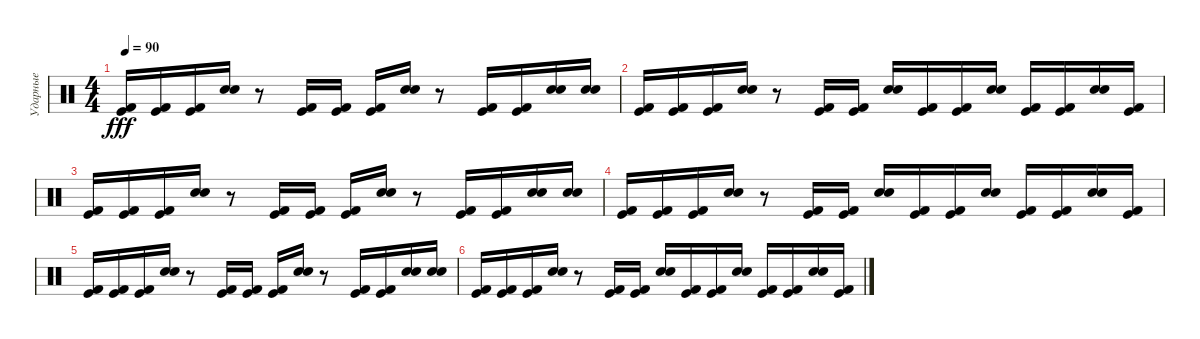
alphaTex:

\track ("Ударные" "Ударные") {instrument percussion}
\staff {score}
\articulation defaults
\ts (4 4)
\tempo 90
\clef neutral
\ks c
("Kick (hit) 2" "Kick (hit)").16{dy fff} ("Kick (hit) 2" "Kick (hit)").16 ("Kick (hit) 2" "Kick (hit)").16 ("Electric Snare (hit)" "Snare (hit) 2").16 r.8 ("Kick (hit) 2" "Kick (hit)").16 ("Kick (hit) 2" "Kick (hit)").16 ("Kick (hit) 2" "Kick (hit)").16 ("Electric Snare (hit)" "Snare (hit) 2").16 r.8 ("Kick (hit) 2" "Kick (hit)").16 ("Kick (hit) 2" "Kick (hit)").16 ("Electric Snare (hit)" "Snare (hit) 2").16 ("Electric Snare (hit)" "Snare (hit) 2").16 |
("Kick (hit) 2" "Kick (hit)").16 ("Kick (hit) 2" "Kick (hit)").16 ("Kick (hit) 2" "Kick (hit)").16 ("Electric Snare (hit)" "Snare (hit) 2").16 r.8 ("Kick (hit) 2" "Kick (hit)").16 ("Kick (hit) 2" "Kick (hit)").16 ("Electric Snare (hit)" "Snare (hit) 2").16 ("Kick (hit) 2" "Kick (hit)").16 ("Kick (hit) 2" "Kick (hit)").16 ("Electric Snare (hit)" "Snare (hit) 2").16 ("Kick (hit) 2" "Kick (hit)").16 ("Kick (hit) 2" "Kick (hit)").16 ("Electric Snare (hit)" "Snare (hit) 2").16 ("Kick (hit) 2" "Kick (hit)").16 |
("Kick (hit) 2" "Kick (hit)").16 ("Kick (hit) 2" "Kick (hit)").16 ("Kick (hit) 2" "Kick (hit)").16 ("Electric Snare (hit)" "Snare (hit) 2").16 r.8 ("Kick (hit) 2" "Kick (hit)").16 ("Kick (hit) 2" "Kick (hit)").16 ("Kick (hit) 2" "Kick (hit)").16 ("Electric Snare (hit)" "Snare (hit) 2").16 r.8 ("Kick (hit) 2" "Kick (hit)").16 ("Kick (hit) 2" "Kick (hit)").16 ("Electric Snare (hit)" "Snare (hit) 2").16 ("Electric Snare (hit)" "Snare (hit) 2").16 |
("Kick (hit) 2" "Kick (hit)").16 ("Kick (hit) 2" "Kick (hit)").16 ("Kick (hit) 2" "Kick (hit)").16 ("Electric Snare (hit)" "Snare (hit) 2").16 r.8 ("Kick (hit) 2" "Kick (hit)").16 ("Kick (hit) 2" "Kick (hit)").16 ("Electric Snare (hit)" "Snare (hit) 2").16 ("Kick (hit) 2" "Kick (hit)").16 ("Kick (hit) 2" "Kick (hit)").16 ("Electric Snare (hit)" "Snare (hit) 2").16 ("Kick (hit) 2" "Kick (hit)").16 ("Kick (hit) 2" "Kick (hit)").16 ("Electric Snare (hit)" "Snare (hit) 2").16 ("Kick (hit) 2" "Kick (hit)").16 |
("Kick (hit) 2" "Kick (hit)").16 ("Kick (hit) 2" "Kick (hit)").16 ("Kick (hit) 2" "Kick (hit)").16 ("Electric Snare (hit)" "Snare (hit) 2").16 r.8 ("Kick (hit) 2" "Kick (hit)").16 ("Kick (hit) 2" "Kick (hit)").16 ("Kick (hit) 2" "Kick (hit)").16 ("Electric Snare (hit)" "Snare (hit) 2").16 r.8 ("Kick (hit) 2" "Kick (hit)").16 ("Kick (hit) 2" "Kick (hit)").16 ("Electric Snare (hit)" "Snare (hit) 2").16 ("Electric Snare (hit)" "Snare (hit) 2").16 |
("Kick (hit) 2" "Kick (hit)").16 ("Kick (hit) 2" "Kick (hit)").16 ("Kick (hit) 2" "Kick (hit)").16 ("Electric Snare (hit)" "Snare (hit) 2").16 r.8 ("Kick (hit) 2" "Kick (hit)").16 ("Kick (hit) 2" "Kick (hit)").16 ("Electric Snare (hit)" "Snare (hit) 2").16 ("Kick (hit) 2" "Kick (hit)").16 ("Kick (hit) 2" "Kick (hit)").16 ("Electric Snare (hit)" "Snare (hit) 2").16 ("Kick (hit) 2" "Kick (hit)").16 ("Kick (hit) 2" "Kick (hit)").16 ("Electric Snare (hit)" "Snare (hit) 2").16 ("Kick (hit) 2" "Kick (hit)").16
